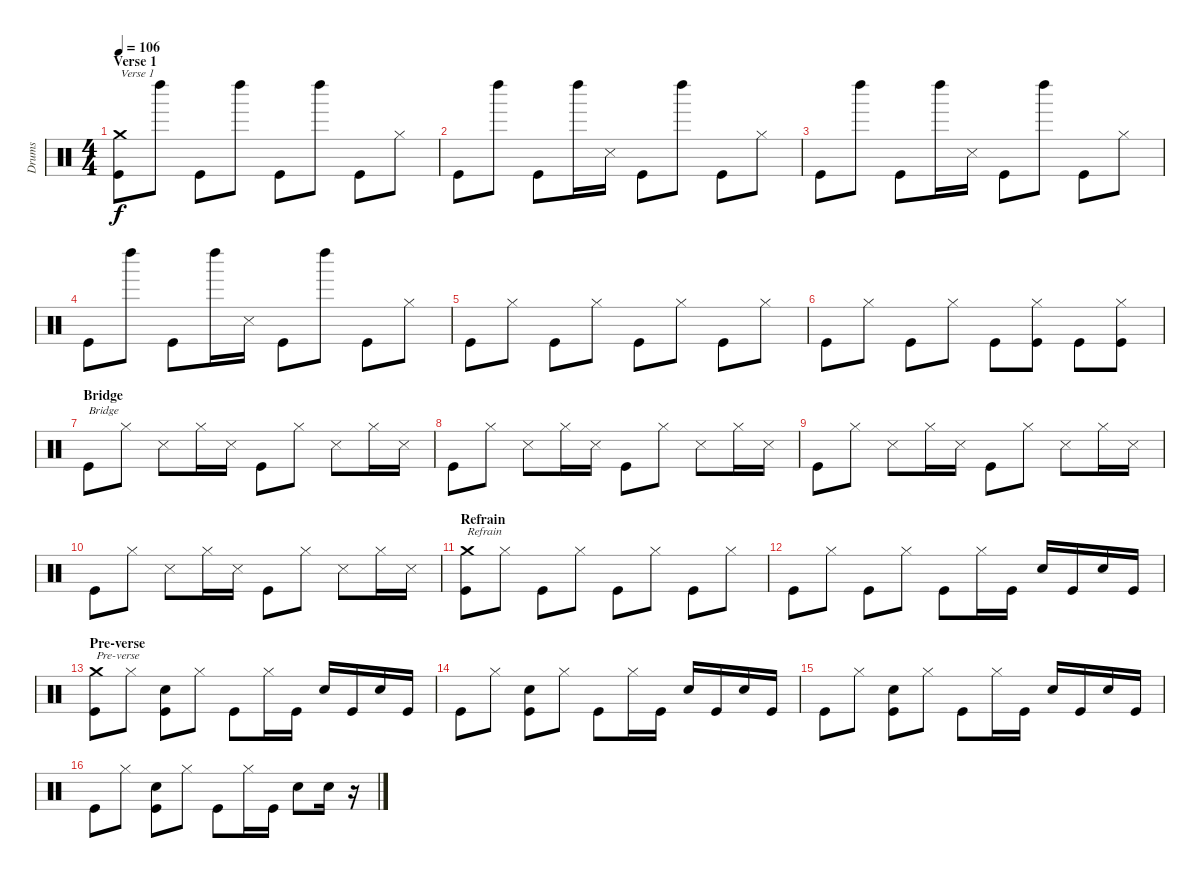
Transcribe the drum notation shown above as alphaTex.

\track ("Drums" "Drums") {instrument percussion}
\staff {score}
\articulation defaults
\ts (4 4)
\section ("" "Verse 1")
\tempo 106
\clef neutral
\ks c
("Kick (hit)" "Crash medium (hit)").8{txt "Verse 1" dy f} "Left Maraca (hit)".8 "Kick (hit)".8 "Left Maraca (hit)".8 "Kick (hit)".8 "Left Maraca (hit)".8 "Kick (hit)".8 "Hi-Hat (closed)".8 |
"Kick (hit)".8 "Left Maraca (hit)".8 "Kick (hit)".8 "Left Maraca (hit)".16 "Snare (side stick) 3".16 "Kick (hit)".8 "Left Maraca (hit)".8 "Kick (hit)".8 "Hi-Hat (closed)".8 |
"Kick (hit)".8 "Left Maraca (hit)".8 "Kick (hit)".8 "Left Maraca (hit)".16 "Snare (side stick) 3".16 "Kick (hit)".8 "Left Maraca (hit)".8 "Kick (hit)".8 "Hi-Hat (closed)".8 |
"Kick (hit)".8 "Left Maraca (hit)".8 "Kick (hit)".8 "Left Maraca (hit)".16 "Snare (side stick) 3".16 "Kick (hit)".8 "Left Maraca (hit)".8 "Kick (hit)".8 "Hi-Hat (closed)".8 |
"Kick (hit)".8 "Hi-Hat (closed)".8 "Kick (hit)".8 "Hi-Hat (closed)".8 "Kick (hit)".8 "Hi-Hat (closed)".8 "Kick (hit)".8 "Hi-Hat (closed)".8 |
"Kick (hit)".8 "Hi-Hat (closed)".8 "Kick (hit)".8 "Hi-Hat (closed)".8 "Kick (hit)".8 ("Kick (hit)" "Hi-Hat (closed)").8 "Kick (hit)".8 ("Kick (hit)" "Hi-Hat (closed)").8 |
\section ("" "Bridge")
"Kick (hit)".8{txt "Bridge"} "Hi-Hat (closed)".8 "Snare (side stick) 3".8 "Hi-Hat (closed)".16 "Snare (side stick) 3".16 "Kick (hit)".8 "Hi-Hat (closed)".8 "Snare (side stick) 3".8 "Hi-Hat (closed)".16 "Snare (side stick) 3".16 |
"Kick (hit)".8 "Hi-Hat (closed)".8 "Snare (side stick) 3".8 "Hi-Hat (closed)".16 "Snare (side stick) 3".16 "Kick (hit)".8 "Hi-Hat (closed)".8 "Snare (side stick) 3".8 "Hi-Hat (closed)".16 "Snare (side stick) 3".16 |
"Kick (hit)".8 "Hi-Hat (closed)".8 "Snare (side stick) 3".8 "Hi-Hat (closed)".16 "Snare (side stick) 3".16 "Kick (hit)".8 "Hi-Hat (closed)".8 "Snare (side stick) 3".8 "Hi-Hat (closed)".16 "Snare (side stick) 3".16 |
"Kick (hit)".8 "Hi-Hat (closed)".8 "Snare (side stick) 3".8 "Hi-Hat (closed)".16 "Snare (side stick) 3".16 "Kick (hit)".8 "Hi-Hat (closed)".8 "Snare (side stick) 3".8 "Hi-Hat (closed)".16 "Snare (side stick) 3".16 |
\section ("" "Refrain")
("Kick (hit)" "Crash medium (hit)").8{txt "Refrain"} "Hi-Hat (closed)".8 "Kick (hit)".8 "Hi-Hat (closed)".8 "Kick (hit)".8 "Hi-Hat (closed)".8 "Kick (hit)".8 "Hi-Hat (closed)".8 |
"Kick (hit)".8 "Hi-Hat (closed)".8 "Kick (hit)".8 "Hi-Hat (closed)".8 "Kick (hit)".8 "Hi-Hat (closed)".16 "Kick (hit)".16 "Electric Snare (hit)".16 "Kick (hit)".16 "Electric Snare (hit)".16 "Kick (hit)".16 |
\section ("" "Pre-verse")
("Kick (hit)" "Crash medium (hit)").8{txt "Pre-verse"} "Hi-Hat (closed)".8 ("Kick (hit)" "Electric Snare (hit)").8 "Hi-Hat (closed)".8 "Kick (hit)".8 "Hi-Hat (closed)".16 "Kick (hit)".16 "Electric Snare (hit)".16 "Kick (hit)".16 "Electric Snare (hit)".16 "Kick (hit)".16 |
"Kick (hit)".8 "Hi-Hat (closed)".8 ("Kick (hit)" "Electric Snare (hit)").8 "Hi-Hat (closed)".8 "Kick (hit)".8 "Hi-Hat (closed)".16 "Kick (hit)".16 "Electric Snare (hit)".16 "Kick (hit)".16 "Electric Snare (hit)".16 "Kick (hit)".16 |
"Kick (hit)".8 "Hi-Hat (closed)".8 ("Kick (hit)" "Electric Snare (hit)").8 "Hi-Hat (closed)".8 "Kick (hit)".8 "Hi-Hat (closed)".16 "Kick (hit)".16 "Electric Snare (hit)".16 "Kick (hit)".16 "Electric Snare (hit)".16 "Kick (hit)".16 |
"Kick (hit)".8 "Hi-Hat (closed)".8 ("Kick (hit)" "Electric Snare (hit)").8 "Hi-Hat (closed)".8 "Kick (hit)".8 "Hi-Hat (closed)".16 "Kick (hit)".16 "Electric Snare (hit)".8 "Electric Snare (hit)".16 r.16
